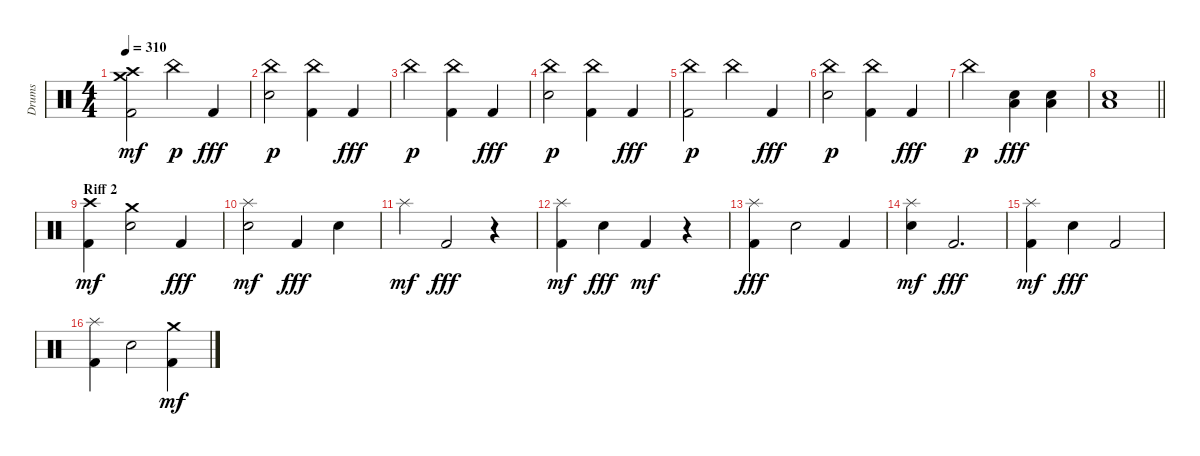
\track ("Drums" "Drums") {solo instrument percussion}
\staff {score}
\articulation defaults
\ts (4 4)
\tempo 310
\clef neutral
\ks c
("Kick (hit) 2" "Crash high (hit)" "Crash medium (hit)").2{dy mf} "China (hit)".4{dy p} "Kick (hit) 2".4{dy fff} |
("Electric Snare (hit)" "China (hit)").2{dy p} ("Kick (hit) 2" "China (hit)").4 "Kick (hit) 2".4{dy fff} |
"China (hit)".2{dy p} ("Kick (hit) 2" "China (hit)").4 "Kick (hit) 2".4{dy fff} |
("Electric Snare (hit)" "China (hit)").2{dy p} ("Kick (hit) 2" "China (hit)").4 "Kick (hit) 2".4{dy fff} |
("Kick (hit) 2" "China (hit)").2{dy p} "China (hit)".4 "Kick (hit) 2".4{dy fff} |
("Electric Snare (hit)" "China (hit)").2{dy p} ("Kick (hit) 2" "China (hit)").4 "Kick (hit) 2".4{dy fff} |
"China (hit)".2{dy p} ("Low Floor Tom (hit)" "Electric Snare (hit)").4{dy fff} ("Low Floor Tom (hit)" "Electric Snare (hit)").4 |
\barLineRight lightlight
("Low Floor Tom (hit)" "Electric Snare (hit)").1 |
\section ("" "Riff 2")
("Kick (hit) 2" "Crash high (hit)").4{dy mf} ("Electric Snare (hit)" "Crash medium (hit)").2 "Kick (hit) 2".4{dy fff} |
("Electric Snare (hit)" "Splash (hit)").2{dy mf} "Kick (hit) 2".4{dy fff} "Electric Snare (hit)".4 |
"Splash (hit)".4{dy mf} "Kick (hit) 2".2{dy fff} r.4 |
("Kick (hit) 2" "Splash (hit)").4{dy mf} "Electric Snare (hit)".4{dy fff} "Kick (hit) 2".4{dy mf} r.4 |
("Splash (hit)" "Kick (hit) 2").4{dy fff} "Electric Snare (hit)".2 "Kick (hit) 2".4 |
("Electric Snare (hit)" "Splash (hit)").4{dy mf} "Kick (hit) 2".2{d dy fff} |
("Kick (hit) 2" "Splash (hit)").4{dy mf} "Electric Snare (hit)".4{dy fff} "Kick (hit) 2".2 |
("Splash (hit)" "Kick (hit) 2").4 "Electric Snare (hit)".2 ("Kick (hit) 2" "Crash medium (hit)").4{dy mf}
